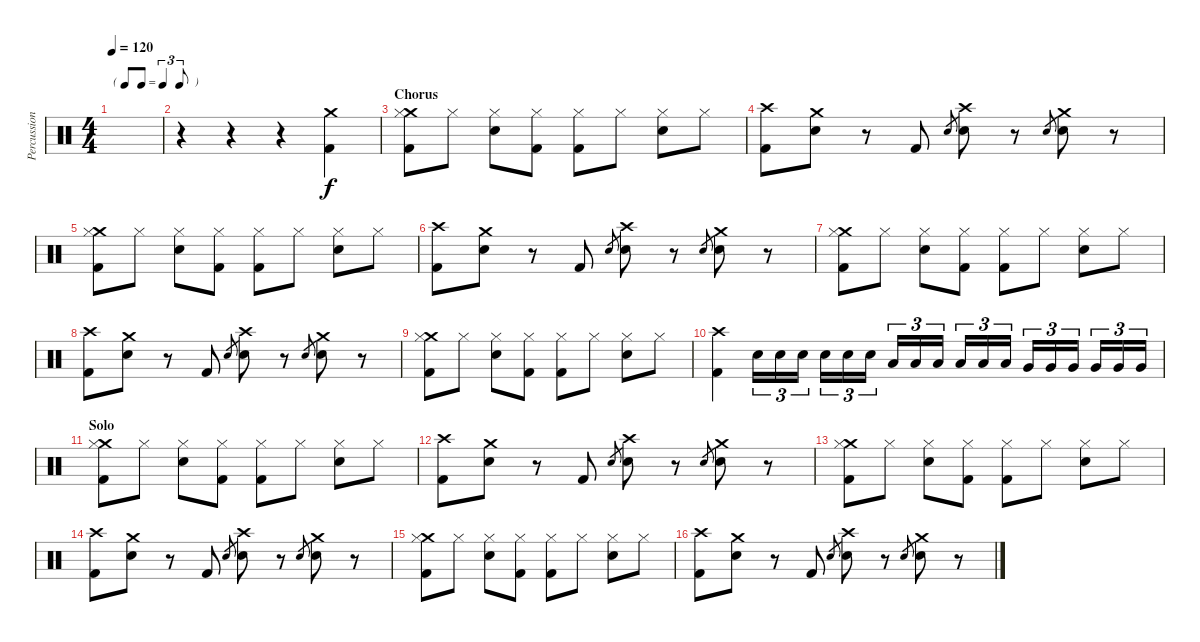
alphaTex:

\track ("Percussion" "Percussion") {instrument percussion}
\staff {score}
\articulation defaults
\ts (4 4)
\tf triplet8th
\tempo 120
\clef neutral
\ks c
|
r.4 r.4 r.4 ("Crash medium (hit)" "Kick (hit) 2").4{dy f} |
\section ("" "Chorus")
("Crash medium (hit)" "Hi-Hat (closed)" "Kick (hit) 2").8 "Hi-Hat (closed)".8 ("Hi-Hat (closed)" "Electric Snare (hit)").8 ("Hi-Hat (closed)" "Kick (hit) 2").8 ("Hi-Hat (closed)" "Kick (hit) 2").8 "Hi-Hat (closed)".8 ("Hi-Hat (closed)" "Electric Snare (hit)").8 "Hi-Hat (closed)".8 |
("Crash high (hit)" "Kick (hit) 2").8 ("Crash medium (hit)" "Electric Snare (hit)").8 r.8 "Kick (hit) 2".8 "Electric Snare (hit)".8{gr} ("Crash high (hit)" "Electric Snare (hit)").8 r.8 "Electric Snare (hit)".8{gr} ("Crash medium (hit)" "Electric Snare (hit)").8 r.8 |
("Crash medium (hit)" "Hi-Hat (closed)" "Kick (hit) 2").8 "Hi-Hat (closed)".8 ("Hi-Hat (closed)" "Electric Snare (hit)").8 ("Hi-Hat (closed)" "Kick (hit) 2").8 ("Hi-Hat (closed)" "Kick (hit) 2").8 "Hi-Hat (closed)".8 ("Hi-Hat (closed)" "Electric Snare (hit)").8 "Hi-Hat (closed)".8 |
("Crash high (hit)" "Kick (hit) 2").8 ("Crash medium (hit)" "Electric Snare (hit)").8 r.8 "Kick (hit) 2".8 "Electric Snare (hit)".8{gr} ("Crash high (hit)" "Electric Snare (hit)").8 r.8 "Electric Snare (hit)".8{gr} ("Crash medium (hit)" "Electric Snare (hit)").8 r.8 |
("Crash medium (hit)" "Hi-Hat (closed)" "Kick (hit) 2").8 "Hi-Hat (closed)".8 ("Hi-Hat (closed)" "Electric Snare (hit)").8 ("Hi-Hat (closed)" "Kick (hit) 2").8 ("Hi-Hat (closed)" "Kick (hit) 2").8 "Hi-Hat (closed)".8 ("Hi-Hat (closed)" "Electric Snare (hit)").8 "Hi-Hat (closed)".8 |
("Crash high (hit)" "Kick (hit) 2").8 ("Crash medium (hit)" "Electric Snare (hit)").8 r.8 "Kick (hit) 2".8 "Electric Snare (hit)".8{gr} ("Crash high (hit)" "Electric Snare (hit)").8 r.8 "Electric Snare (hit)".8{gr} ("Crash medium (hit)" "Electric Snare (hit)").8 r.8 |
("Crash medium (hit)" "Hi-Hat (closed)" "Kick (hit) 2").8 "Hi-Hat (closed)".8 ("Hi-Hat (closed)" "Electric Snare (hit)").8 ("Hi-Hat (closed)" "Kick (hit) 2").8 ("Hi-Hat (closed)" "Kick (hit) 2").8 "Hi-Hat (closed)".8 ("Hi-Hat (closed)" "Electric Snare (hit)").8 "Hi-Hat (closed)".8 |
("Crash high (hit)" "Kick (hit) 2").4 "Electric Snare (hit)".16{tu (3 2)} "Electric Snare (hit)".16{tu (3 2)} "Electric Snare (hit)".16{tu (3 2)} "Electric Snare (hit)".16{tu (3 2)} "Electric Snare (hit)".16{tu (3 2)} "Electric Snare (hit)".16{tu (3 2)} "Low Tom (hit)".16{tu (3 2)} "Low Tom (hit)".16{tu (3 2)} "Low Tom (hit)".16{tu (3 2)} "Low Tom (hit)".16{tu (3 2)} "Low Tom (hit)".16{tu (3 2)} "Low Tom (hit)".16{tu (3 2)} "Very Low Tom (hit)".16{tu (3 2)} "Very Low Tom (hit)".16{tu (3 2)} "Very Low Tom (hit)".16{tu (3 2)} "Very Low Tom (hit)".16{tu (3 2)} "Very Low Tom (hit)".16{tu (3 2)} "Very Low Tom (hit)".16{tu (3 2)} |
\section ("" "Solo")
("Crash medium (hit)" "Hi-Hat (closed)" "Kick (hit) 2").8 "Hi-Hat (closed)".8 ("Hi-Hat (closed)" "Electric Snare (hit)").8 ("Hi-Hat (closed)" "Kick (hit) 2").8 ("Hi-Hat (closed)" "Kick (hit) 2").8 "Hi-Hat (closed)".8 ("Hi-Hat (closed)" "Electric Snare (hit)").8 "Hi-Hat (closed)".8 |
("Crash high (hit)" "Kick (hit) 2").8 ("Crash medium (hit)" "Electric Snare (hit)").8 r.8 "Kick (hit) 2".8 "Electric Snare (hit)".8{gr} ("Crash high (hit)" "Electric Snare (hit)").8 r.8 "Electric Snare (hit)".8{gr} ("Crash medium (hit)" "Electric Snare (hit)").8 r.8 |
("Crash medium (hit)" "Hi-Hat (closed)" "Kick (hit) 2").8 "Hi-Hat (closed)".8 ("Hi-Hat (closed)" "Electric Snare (hit)").8 ("Hi-Hat (closed)" "Kick (hit) 2").8 ("Hi-Hat (closed)" "Kick (hit) 2").8 "Hi-Hat (closed)".8 ("Hi-Hat (closed)" "Electric Snare (hit)").8 "Hi-Hat (closed)".8 |
("Crash high (hit)" "Kick (hit) 2").8 ("Crash medium (hit)" "Electric Snare (hit)").8 r.8 "Kick (hit) 2".8 "Electric Snare (hit)".8{gr} ("Crash high (hit)" "Electric Snare (hit)").8 r.8 "Electric Snare (hit)".8{gr} ("Crash medium (hit)" "Electric Snare (hit)").8 r.8 |
("Crash medium (hit)" "Hi-Hat (closed)" "Kick (hit) 2").8 "Hi-Hat (closed)".8 ("Hi-Hat (closed)" "Electric Snare (hit)").8 ("Hi-Hat (closed)" "Kick (hit) 2").8 ("Hi-Hat (closed)" "Kick (hit) 2").8 "Hi-Hat (closed)".8 ("Hi-Hat (closed)" "Electric Snare (hit)").8 "Hi-Hat (closed)".8 |
("Crash high (hit)" "Kick (hit) 2").8 ("Crash medium (hit)" "Electric Snare (hit)").8 r.8 "Kick (hit) 2".8 "Electric Snare (hit)".8{gr} ("Crash high (hit)" "Electric Snare (hit)").8 r.8 "Electric Snare (hit)".8{gr} ("Crash medium (hit)" "Electric Snare (hit)").8 r.8
